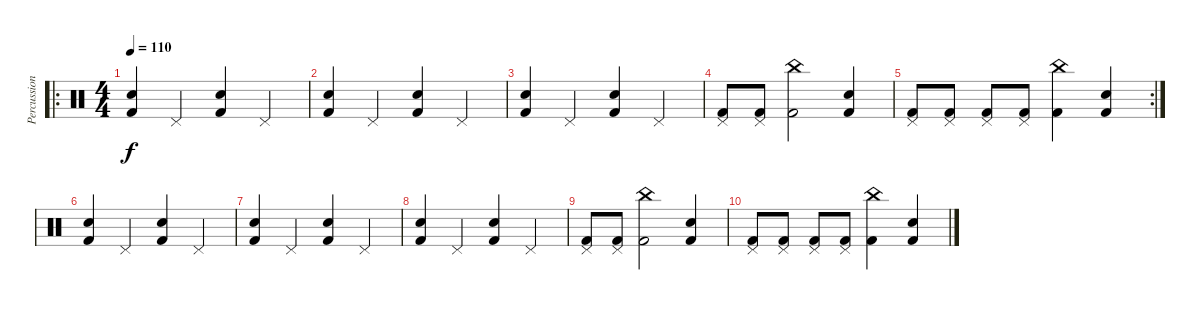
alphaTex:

\track ("Percussion" "Percussion") {instrument percussion}
\staff {score}
\articulation defaults
\ro
\ts (4 4)
\tempo 110
\clef neutral
\ks c
("Snare (hit) 2" "Kick (hit) 2").4{dy f} "Pedal Hi-Hat (hit)".4 ("Snare (hit) 2" "Kick (hit) 2").4 "Pedal Hi-Hat (hit)".4 |
("Snare (hit) 2" "Kick (hit) 2").4 "Pedal Hi-Hat (hit)".4 ("Snare (hit) 2" "Kick (hit) 2").4 "Pedal Hi-Hat (hit)".4 |
("Snare (hit) 2" "Kick (hit) 2").4 "Pedal Hi-Hat (hit)".4 ("Snare (hit) 2" "Kick (hit) 2").4 "Pedal Hi-Hat (hit)".4 |
("Pedal Hi-Hat (hit)" "Kick (hit) 2").8 ("Pedal Hi-Hat (hit)" "Kick (hit) 2").8 ("China (hit)" "Kick (hit) 2").2 ("Snare (hit) 2" "Kick (hit) 2").4 |
\rc 2
("Pedal Hi-Hat (hit)" "Kick (hit) 2").8 ("Pedal Hi-Hat (hit)" "Kick (hit) 2").8 ("Pedal Hi-Hat (hit)" "Kick (hit) 2").8 ("Pedal Hi-Hat (hit)" "Kick (hit) 2").8 ("China (hit)" "Kick (hit) 2").4 ("Snare (hit) 2" "Kick (hit) 2").4 |
("Snare (hit) 2" "Kick (hit) 2").4 "Pedal Hi-Hat (hit)".4 ("Snare (hit) 2" "Kick (hit) 2").4 "Pedal Hi-Hat (hit)".4 |
("Snare (hit) 2" "Kick (hit) 2").4 "Pedal Hi-Hat (hit)".4 ("Snare (hit) 2" "Kick (hit) 2").4 "Pedal Hi-Hat (hit)".4 |
("Snare (hit) 2" "Kick (hit) 2").4 "Pedal Hi-Hat (hit)".4 ("Snare (hit) 2" "Kick (hit) 2").4 "Pedal Hi-Hat (hit)".4 |
("Pedal Hi-Hat (hit)" "Kick (hit) 2").8 ("Pedal Hi-Hat (hit)" "Kick (hit) 2").8 ("China (hit)" "Kick (hit) 2").2 ("Snare (hit) 2" "Kick (hit) 2").4 |
("Pedal Hi-Hat (hit)" "Kick (hit) 2").8 ("Pedal Hi-Hat (hit)" "Kick (hit) 2").8 ("Pedal Hi-Hat (hit)" "Kick (hit) 2").8 ("Pedal Hi-Hat (hit)" "Kick (hit) 2").8 ("China (hit)" "Kick (hit) 2").4 ("Snare (hit) 2" "Kick (hit) 2").4
